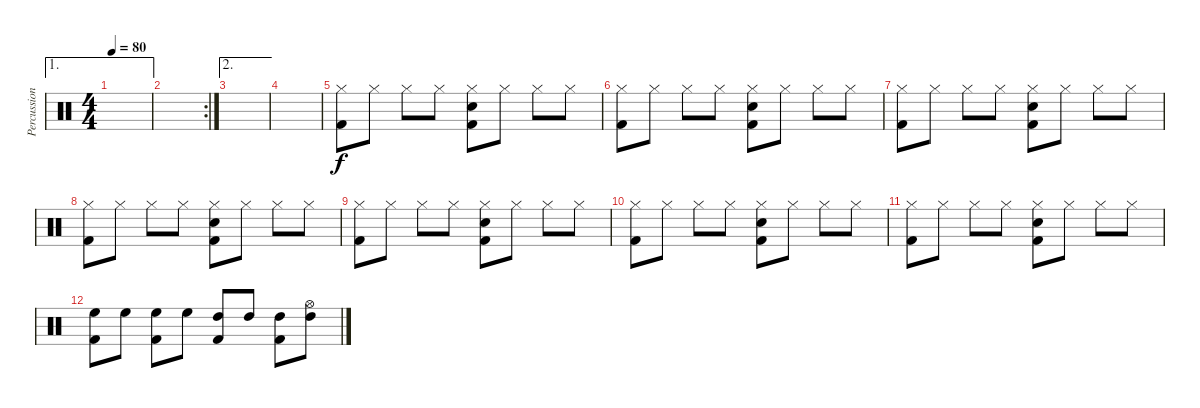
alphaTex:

\track ("Percussion" "Percussion") {instrument percussion}
\staff {score}
\articulation defaults
\ae 1
\ts (4 4)
\tempo 80
\clef neutral
\ks c
|
\rc 2
|
\ae 2
|
|
("Hi-Hat (closed)" "Kick (hit) 2").8 "Hi-Hat (closed)".8 "Hi-Hat (closed)".8 "Hi-Hat (closed)".8 ("Hi-Hat (closed)" "Snare (hit) 2" "Kick (hit) 2").8 "Hi-Hat (closed)".8 "Hi-Hat (closed)".8 "Hi-Hat (closed)".8 |
("Hi-Hat (closed)" "Kick (hit) 2").8 "Hi-Hat (closed)".8 "Hi-Hat (closed)".8 "Hi-Hat (closed)".8 ("Hi-Hat (closed)" "Snare (hit) 2" "Kick (hit) 2").8 "Hi-Hat (closed)".8 "Hi-Hat (closed)".8 "Hi-Hat (closed)".8 |
("Hi-Hat (closed)" "Kick (hit) 2").8 "Hi-Hat (closed)".8 "Hi-Hat (closed)".8 "Hi-Hat (closed)".8 ("Hi-Hat (closed)" "Snare (hit) 2" "Kick (hit) 2").8 "Hi-Hat (closed)".8 "Hi-Hat (closed)".8 "Hi-Hat (closed)".8 |
("Hi-Hat (closed)" "Kick (hit) 2").8 "Hi-Hat (closed)".8 "Hi-Hat (closed)".8 "Hi-Hat (closed)".8 ("Hi-Hat (closed)" "Snare (hit) 2" "Kick (hit) 2").8 "Hi-Hat (closed)".8 "Hi-Hat (closed)".8 "Hi-Hat (closed)".8 |
("Hi-Hat (closed)" "Kick (hit) 2").8 "Hi-Hat (closed)".8 "Hi-Hat (closed)".8 "Hi-Hat (closed)".8 ("Hi-Hat (closed)" "Snare (hit) 2" "Kick (hit) 2").8 "Hi-Hat (closed)".8 "Hi-Hat (closed)".8 "Hi-Hat (closed)".8 |
("Hi-Hat (closed)" "Kick (hit) 2").8 "Hi-Hat (closed)".8 "Hi-Hat (closed)".8 "Hi-Hat (closed)".8 ("Hi-Hat (closed)" "Snare (hit) 2" "Kick (hit) 2").8 "Hi-Hat (closed)".8 "Hi-Hat (closed)".8 "Hi-Hat (closed)".8 |
("Hi-Hat (closed)" "Kick (hit) 2").8 "Hi-Hat (closed)".8 "Hi-Hat (closed)".8 "Hi-Hat (closed)".8 ("Hi-Hat (closed)" "Snare (hit) 2" "Kick (hit) 2").8 "Hi-Hat (closed)".8 "Hi-Hat (closed)".8 "Hi-Hat (closed)".8 |
("High Floor Tom (hit)" "Kick (hit) 2").8 "High Floor Tom (hit)".8 ("High Floor Tom (hit)" "Kick (hit) 2").8 "High Floor Tom (hit)".8 ("High Tom (hit)" "Kick (hit) 2").8 "High Tom (hit)".8 ("High Tom (hit)" "Kick (hit) 2").8 ("Hi-Hat (open)" "High Tom (hit)").8
